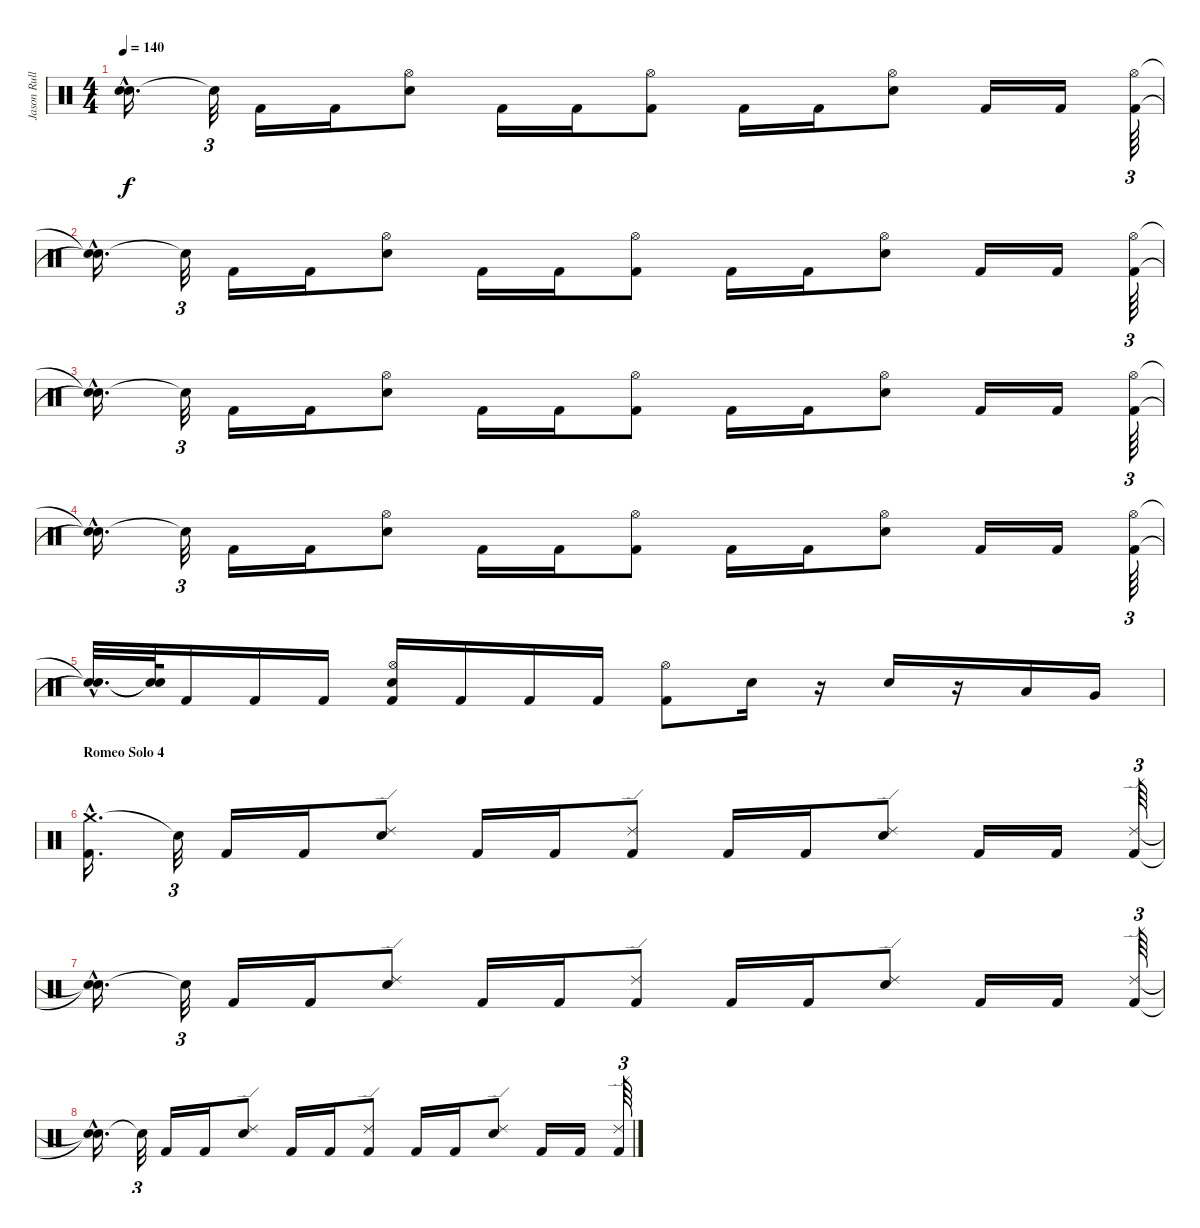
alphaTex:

\track ("Jason Rullo" "Jason Rull") {instrument percussion}
\staff {score}
\articulation defaults
\ts (4 4)
\tempo 140
\clef neutral
\ks c
("Snare (hit)"{hac t} "Snare (hit)"{hac t}).16{d dy f} "Snare (hit)"{t}.32{tu (3 2)} "Kick (hit) 2".16 "Kick (hit) 2".16 ("Hi-Hat (open)" "Electric Snare (hit)").8 "Kick (hit) 2".16 "Kick (hit) 2".16 ("Hi-Hat (open)" "Kick (hit) 2").8 "Kick (hit) 2".16 "Kick (hit) 2".16 ("Hi-Hat (open)" "Electric Snare (hit)").8 "Kick (hit) 2".16 "Kick (hit) 2".16 ("Hi-Hat (open)" "Kick (hit) 2").64{tu (3 2)} |
("Snare (hit)"{hac t} "Snare (hit)"{hac t}).16{d} "Snare (hit)"{t}.32{tu (3 2)} "Kick (hit) 2".16 "Kick (hit) 2".16 ("Hi-Hat (open)" "Electric Snare (hit)").8 "Kick (hit) 2".16 "Kick (hit) 2".16 ("Hi-Hat (open)" "Kick (hit) 2").8 "Kick (hit) 2".16 "Kick (hit) 2".16 ("Hi-Hat (open)" "Electric Snare (hit)").8 "Kick (hit) 2".16 "Kick (hit) 2".16 ("Hi-Hat (open)" "Kick (hit) 2").64{tu (3 2)} |
("Snare (hit)"{hac t} "Snare (hit)"{hac t}).16{d} "Snare (hit)"{t}.32{tu (3 2)} "Kick (hit) 2".16 "Kick (hit) 2".16 ("Hi-Hat (open)" "Electric Snare (hit)").8 "Kick (hit) 2".16 "Kick (hit) 2".16 ("Hi-Hat (open)" "Kick (hit) 2").8 "Kick (hit) 2".16 "Kick (hit) 2".16 ("Hi-Hat (open)" "Electric Snare (hit)").8 "Kick (hit) 2".16 "Kick (hit) 2".16 ("Hi-Hat (open)" "Kick (hit) 2").64{tu (3 2)} |
("Snare (hit)"{hac t} "Snare (hit)"{hac t}).16{d} "Snare (hit)"{t}.32{tu (3 2)} "Kick (hit) 2".16 "Kick (hit) 2".16 ("Hi-Hat (open)" "Electric Snare (hit)").8 "Kick (hit) 2".16 "Kick (hit) 2".16 ("Hi-Hat (open)" "Kick (hit) 2").8 "Kick (hit) 2".16 "Kick (hit) 2".16 ("Hi-Hat (open)" "Electric Snare (hit)").8 "Kick (hit) 2".16 "Kick (hit) 2".16 ("Hi-Hat (open)" "Kick (hit) 2").64{tu (3 2)} |
("Snare (hit)"{hac t} "Snare (hit)"{hac t}).32{d} ("Snare (hit)"{t} "Snare (hit)"{t}).64 "Kick (hit) 2".16 "Kick (hit) 2".16 "Kick (hit) 2".16 ("Hi-Hat (open)" "Kick (hit) 2" "Electric Snare (hit)").16 "Kick (hit) 2".16 "Kick (hit) 2".16 "Kick (hit) 2".16 ("Hi-Hat (open)" "Kick (hit) 2").8 "Electric Snare (hit)".16 r.16 "Electric Snare (hit)".16 r.16 "Low Tom (hit)".16 "Very Low Tom (hit)".16 |
\section ("" "Romeo Solo 4")
("Crash medium (hit)"{hac} "Kick (hit) 2"{hac}).16{d} "Snare (hit)"{t}.32{tu (3 2)} "Kick (hit) 2".16 "Kick (hit) 2".16 ("Ride (edge) 2" "Electric Snare (hit)").8 "Kick (hit) 2".16 "Kick (hit) 2".16 ("Ride (edge) 2" "Kick (hit) 2").8 "Kick (hit) 2".16 "Kick (hit) 2".16 ("Ride (edge) 2" "Electric Snare (hit)").8 "Kick (hit) 2".16 "Kick (hit) 2".16 ("Ride (edge) 2" "Kick (hit) 2").64{tu (3 2)} |
("Snare (hit)"{hac t} "Snare (hit)"{hac t}).16{d} "Snare (hit)"{t}.32{tu (3 2)} "Kick (hit) 2".16 "Kick (hit) 2".16 ("Ride (edge) 2" "Electric Snare (hit)").8 "Kick (hit) 2".16 "Kick (hit) 2".16 ("Ride (edge) 2" "Kick (hit) 2").8 "Kick (hit) 2".16 "Kick (hit) 2".16 ("Ride (edge) 2" "Electric Snare (hit)").8 "Kick (hit) 2".16 "Kick (hit) 2".16 ("Ride (edge) 2" "Kick (hit) 2").64{tu (3 2)} |
("Snare (hit)"{hac t} "Snare (hit)"{hac t}).16{d} "Snare (hit)"{t}.32{tu (3 2)} "Kick (hit) 2".16 "Kick (hit) 2".16 ("Ride (edge) 2" "Electric Snare (hit)").8 "Kick (hit) 2".16 "Kick (hit) 2".16 ("Ride (edge) 2" "Kick (hit) 2").8 "Kick (hit) 2".16 "Kick (hit) 2".16 ("Ride (edge) 2" "Electric Snare (hit)").8 "Kick (hit) 2".16 "Kick (hit) 2".16 ("Ride (edge) 2" "Kick (hit) 2").64{tu (3 2)}
